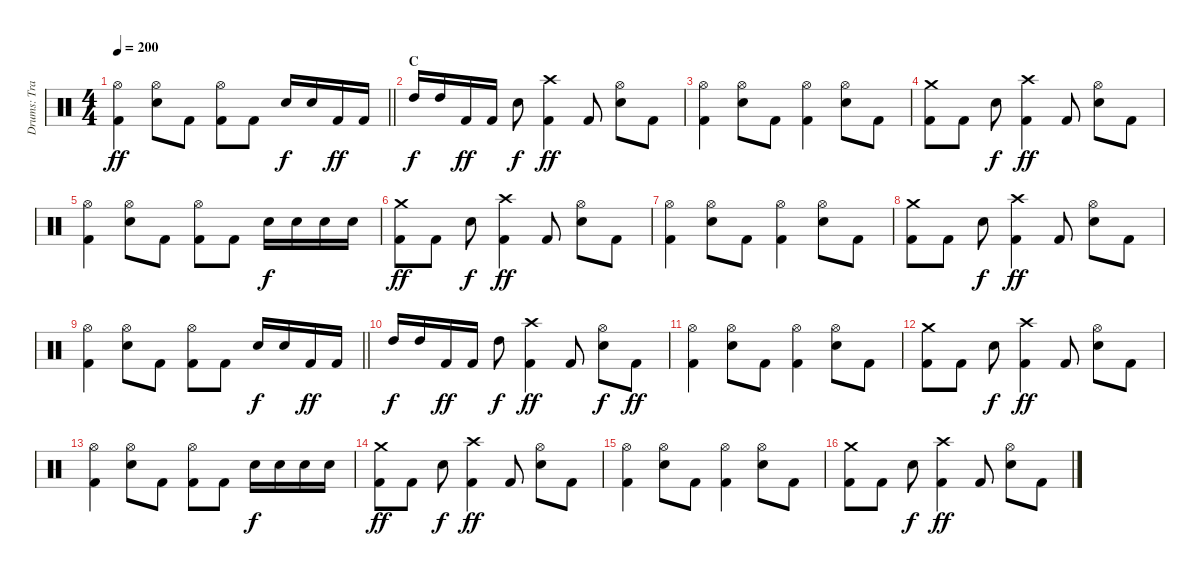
\track ("Drums: Travis Clarke" "Drums: Tra") {instrument percussion}
\staff {score}
\articulation defaults
\ts (4 4)
\tempo 200
\clef neutral
\barLineRight lightlight
\ks c
("Kick (hit) 2" "Hi-Hat (open)").4{dy ff} ("Snare (hit) 2" "Hi-Hat (open)").8 "Kick (hit) 2".8 ("Kick (hit) 2" "Hi-Hat (open)").8 "Kick (hit) 2".8 "Snare (hit) 2".16{dy f} "Snare (hit) 2".16 "Kick (hit) 2".16{dy ff} "Kick (hit) 2".16 |
\section ("" "C")
"High Tom (hit)".16{dy f} "High Tom (hit)".16 "Kick (hit) 2".16{dy ff} "Kick (hit) 2".16 "Snare (hit) 2".8{dy f} ("Kick (hit) 2" "Crash high (hit)").4{dy ff} "Kick (hit) 2".8 ("Snare (hit) 2" "Hi-Hat (open)").8 "Kick (hit) 2".8 |
("Kick (hit) 2" "Hi-Hat (open)").4 ("Snare (hit) 2" "Hi-Hat (open)").8 "Kick (hit) 2".8 ("Kick (hit) 2" "Hi-Hat (open)").4 ("Snare (hit) 2" "Hi-Hat (open)").8 "Kick (hit) 2".8 |
("Kick (hit) 2" "Crash medium (hit)").8 "Kick (hit) 2".8 "Snare (hit) 2".8{dy f} ("Kick (hit) 2" "Crash high (hit)").4{dy ff} "Kick (hit) 2".8 ("Snare (hit) 2" "Hi-Hat (open)").8 "Kick (hit) 2".8 |
("Kick (hit) 2" "Hi-Hat (open)").4 ("Snare (hit) 2" "Hi-Hat (open)").8 "Kick (hit) 2".8 ("Kick (hit) 2" "Hi-Hat (open)").8 "Kick (hit) 2".8 "Snare (hit) 2".16{dy f} "Snare (hit) 2".16 "Snare (hit) 2".16 "Snare (hit) 2".16 |
("Kick (hit) 2" "Crash medium (hit)").8{dy ff} "Kick (hit) 2".8 "Snare (hit) 2".8{dy f} ("Kick (hit) 2" "Crash high (hit)").4{dy ff} "Kick (hit) 2".8 ("Snare (hit) 2" "Hi-Hat (open)").8 "Kick (hit) 2".8 |
("Kick (hit) 2" "Hi-Hat (open)").4 ("Snare (hit) 2" "Hi-Hat (open)").8 "Kick (hit) 2".8 ("Kick (hit) 2" "Hi-Hat (open)").4 ("Snare (hit) 2" "Hi-Hat (open)").8 "Kick (hit) 2".8 |
("Kick (hit) 2" "Crash medium (hit)").8 "Kick (hit) 2".8 "Snare (hit) 2".8{dy f} ("Kick (hit) 2" "Crash high (hit)").4{dy ff} "Kick (hit) 2".8 ("Snare (hit) 2" "Hi-Hat (open)").8 "Kick (hit) 2".8 |
\barLineRight lightlight
("Kick (hit) 2" "Hi-Hat (open)").4 ("Snare (hit) 2" "Hi-Hat (open)").8 "Kick (hit) 2".8 ("Kick (hit) 2" "Hi-Hat (open)").8 "Kick (hit) 2".8 "Snare (hit) 2".16{dy f} "Snare (hit) 2".16 "Kick (hit) 2".16{dy ff} "Kick (hit) 2".16 |
"High Tom (hit)".16{dy f} "High Tom (hit)".16 "Kick (hit) 2".16{dy ff} "Kick (hit) 2".16 "High Tom (hit)".8{dy f} ("Kick (hit) 2" "Crash high (hit)").4{dy ff} "Kick (hit) 2".8 ("Snare (hit) 2" "Hi-Hat (open)").8{dy f} "Kick (hit) 2".8{dy ff} |
("Kick (hit) 2" "Hi-Hat (open)").4 ("Snare (hit) 2" "Hi-Hat (open)").8 "Kick (hit) 2".8 ("Kick (hit) 2" "Hi-Hat (open)").4 ("Snare (hit) 2" "Hi-Hat (open)").8 "Kick (hit) 2".8 |
("Kick (hit) 2" "Crash medium (hit)").8 "Kick (hit) 2".8 "Snare (hit) 2".8{dy f} ("Kick (hit) 2" "Crash high (hit)").4{dy ff} "Kick (hit) 2".8 ("Snare (hit) 2" "Hi-Hat (open)").8 "Kick (hit) 2".8 |
("Kick (hit) 2" "Hi-Hat (open)").4 ("Snare (hit) 2" "Hi-Hat (open)").8 "Kick (hit) 2".8 ("Kick (hit) 2" "Hi-Hat (open)").8 "Kick (hit) 2".8 "Snare (hit) 2".16{dy f} "Snare (hit) 2".16 "Snare (hit) 2".16 "Snare (hit) 2".16 |
("Kick (hit) 2" "Crash medium (hit)").8{dy ff} "Kick (hit) 2".8 "Snare (hit) 2".8{dy f} ("Kick (hit) 2" "Crash high (hit)").4{dy ff} "Kick (hit) 2".8 ("Snare (hit) 2" "Hi-Hat (open)").8 "Kick (hit) 2".8 |
("Kick (hit) 2" "Hi-Hat (open)").4 ("Snare (hit) 2" "Hi-Hat (open)").8 "Kick (hit) 2".8 ("Kick (hit) 2" "Hi-Hat (open)").4 ("Snare (hit) 2" "Hi-Hat (open)").8 "Kick (hit) 2".8 |
("Kick (hit) 2" "Crash medium (hit)").8 "Kick (hit) 2".8 "Snare (hit) 2".8{dy f} ("Kick (hit) 2" "Crash high (hit)").4{dy ff} "Kick (hit) 2".8 ("Snare (hit) 2" "Hi-Hat (open)").8 "Kick (hit) 2".8
